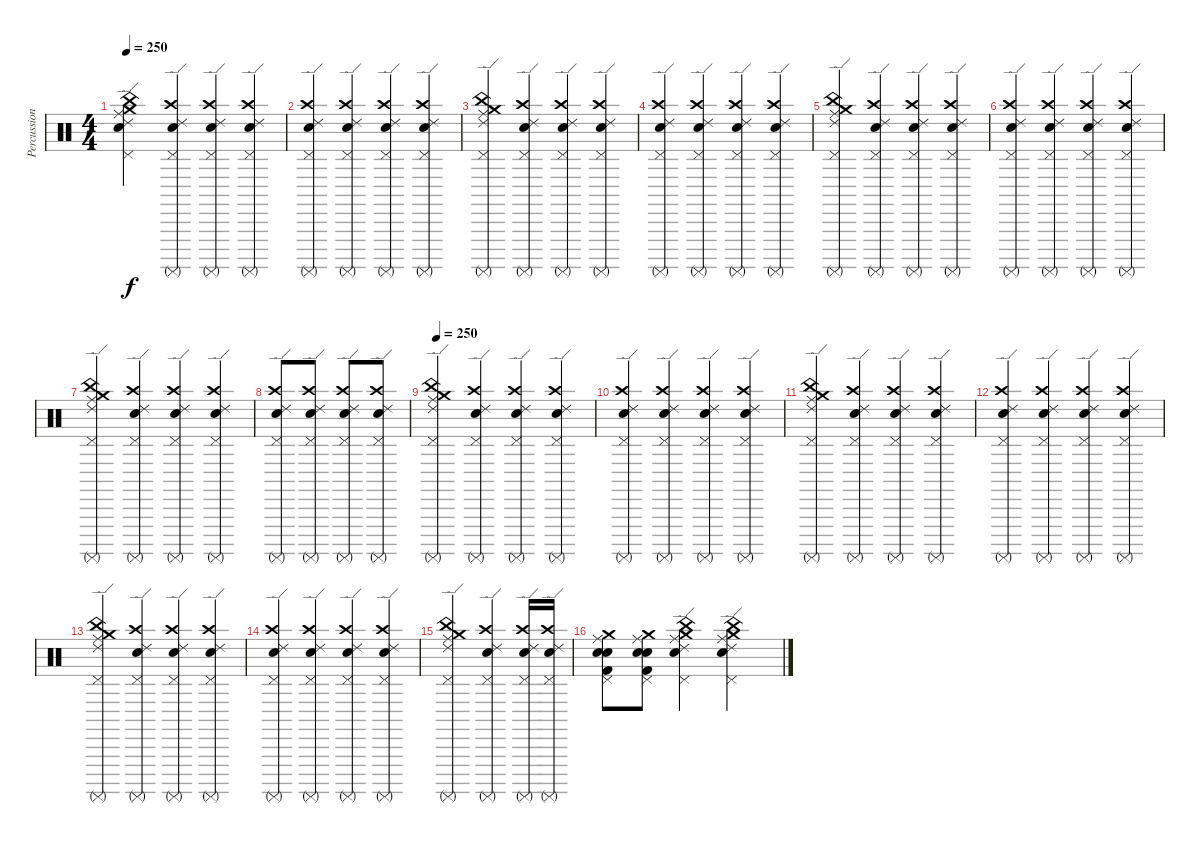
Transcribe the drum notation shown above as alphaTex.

\track ("Percussion" "Percussion") {instrument percussion}
\staff {score}
\articulation defaults
\ts (4 4)
\tempo 250
\clef neutral
\ks c
("Snare (hit) 2" "Ride (middle)" "Crash medium (hit)" "China (hit)" "Pedal Hi-Hat (hit)" "Ride (edge) 2").4{dy f} ("Snare (hit) 2" "Ride (edge) 2" "Crash high (hit)" "Surdo (mute)" "Pedal Hi-Hat (hit)").4 ("Snare (hit) 2" "Ride (edge) 2" "Crash high (hit)" "Surdo (mute)" "Pedal Hi-Hat (hit)").4 ("Snare (hit) 2" "Ride (edge) 2" "Crash high (hit)" "Surdo (mute)" "Pedal Hi-Hat (hit)").4 |
("Snare (hit) 2" "Ride (edge) 2" "Crash high (hit)" "Surdo (mute)" "Pedal Hi-Hat (hit)").4 ("Snare (hit) 2" "Ride (edge) 2" "Crash high (hit)" "Surdo (mute)" "Pedal Hi-Hat (hit)").4 ("Snare (hit) 2" "Ride (edge) 2" "Crash high (hit)" "Surdo (mute)" "Pedal Hi-Hat (hit)").4 ("Snare (hit) 2" "Ride (edge) 2" "Crash high (hit)" "Surdo (mute)" "Pedal Hi-Hat (hit)").4 |
("Ride (middle)" "Crash medium (hit)" "China (hit)" "Surdo (mute)" "Pedal Hi-Hat (hit)" "Ride (edge) 2").4 ("Snare (hit) 2" "Ride (edge) 2" "Crash high (hit)" "Surdo (mute)" "Pedal Hi-Hat (hit)").4 ("Snare (hit) 2" "Ride (edge) 2" "Crash high (hit)" "Surdo (mute)" "Pedal Hi-Hat (hit)").4 ("Snare (hit) 2" "Ride (edge) 2" "Crash high (hit)" "Surdo (mute)" "Pedal Hi-Hat (hit)").4 |
("Snare (hit) 2" "Ride (edge) 2" "Crash high (hit)" "Surdo (mute)" "Pedal Hi-Hat (hit)").4 ("Snare (hit) 2" "Ride (edge) 2" "Crash high (hit)" "Surdo (mute)" "Pedal Hi-Hat (hit)").4 ("Snare (hit) 2" "Ride (edge) 2" "Crash high (hit)" "Surdo (mute)" "Pedal Hi-Hat (hit)").4 ("Snare (hit) 2" "Ride (edge) 2" "Crash high (hit)" "Surdo (mute)" "Pedal Hi-Hat (hit)").4 |
("Ride (middle)" "Crash medium (hit)" "China (hit)" "Surdo (mute)" "Pedal Hi-Hat (hit)" "Ride (edge) 2").4 ("Snare (hit) 2" "Ride (edge) 2" "Crash high (hit)" "Surdo (mute)" "Pedal Hi-Hat (hit)").4 ("Snare (hit) 2" "Ride (edge) 2" "Crash high (hit)" "Surdo (mute)" "Pedal Hi-Hat (hit)").4 ("Snare (hit) 2" "Ride (edge) 2" "Crash high (hit)" "Surdo (mute)" "Pedal Hi-Hat (hit)").4 |
("Snare (hit) 2" "Ride (edge) 2" "Crash high (hit)" "Surdo (mute)" "Pedal Hi-Hat (hit)").4 ("Snare (hit) 2" "Ride (edge) 2" "Crash high (hit)" "Surdo (mute)" "Pedal Hi-Hat (hit)").4 ("Snare (hit) 2" "Ride (edge) 2" "Crash high (hit)" "Surdo (mute)" "Pedal Hi-Hat (hit)").4 ("Snare (hit) 2" "Ride (edge) 2" "Crash high (hit)" "Surdo (mute)" "Pedal Hi-Hat (hit)").4 |
("Ride (middle)" "Crash medium (hit)" "China (hit)" "Surdo (mute)" "Pedal Hi-Hat (hit)" "Ride (edge) 2").4 ("Snare (hit) 2" "Ride (edge) 2" "Crash high (hit)" "Surdo (mute)" "Pedal Hi-Hat (hit)").4 ("Snare (hit) 2" "Ride (edge) 2" "Crash high (hit)" "Surdo (mute)" "Pedal Hi-Hat (hit)").4 ("Snare (hit) 2" "Ride (edge) 2" "Crash high (hit)" "Surdo (mute)" "Pedal Hi-Hat (hit)").4 |
("Snare (hit) 2" "Ride (edge) 2" "Crash high (hit)" "Surdo (mute)" "Pedal Hi-Hat (hit)").8 ("Snare (hit) 2" "Ride (edge) 2" "Crash high (hit)" "Surdo (mute)" "Pedal Hi-Hat (hit)").8 ("Snare (hit) 2" "Ride (edge) 2" "Crash high (hit)" "Surdo (mute)" "Pedal Hi-Hat (hit)").8 ("Snare (hit) 2" "Ride (edge) 2" "Crash high (hit)" "Surdo (mute)" "Pedal Hi-Hat (hit)").8 |
\tempo 250
("Ride (middle)" "Crash medium (hit)" "China (hit)" "Surdo (mute)" "Pedal Hi-Hat (hit)" "Ride (edge) 2").4 ("Snare (hit) 2" "Ride (edge) 2" "Crash high (hit)" "Surdo (mute)" "Pedal Hi-Hat (hit)").4 ("Snare (hit) 2" "Ride (edge) 2" "Crash high (hit)" "Surdo (mute)" "Pedal Hi-Hat (hit)").4 ("Snare (hit) 2" "Ride (edge) 2" "Crash high (hit)" "Surdo (mute)" "Pedal Hi-Hat (hit)").4 |
("Snare (hit) 2" "Ride (edge) 2" "Crash high (hit)" "Surdo (mute)" "Pedal Hi-Hat (hit)").4 ("Snare (hit) 2" "Ride (edge) 2" "Crash high (hit)" "Surdo (mute)" "Pedal Hi-Hat (hit)").4 ("Snare (hit) 2" "Ride (edge) 2" "Crash high (hit)" "Surdo (mute)" "Pedal Hi-Hat (hit)").4 ("Snare (hit) 2" "Ride (edge) 2" "Crash high (hit)" "Surdo (mute)" "Pedal Hi-Hat (hit)").4 |
("Ride (middle)" "Crash medium (hit)" "China (hit)" "Surdo (mute)" "Pedal Hi-Hat (hit)" "Ride (edge) 2").4 ("Snare (hit) 2" "Ride (edge) 2" "Crash high (hit)" "Surdo (mute)" "Pedal Hi-Hat (hit)").4 ("Snare (hit) 2" "Ride (edge) 2" "Crash high (hit)" "Surdo (mute)" "Pedal Hi-Hat (hit)").4 ("Snare (hit) 2" "Ride (edge) 2" "Crash high (hit)" "Surdo (mute)" "Pedal Hi-Hat (hit)").4 |
("Snare (hit) 2" "Ride (edge) 2" "Crash high (hit)" "Surdo (mute)" "Pedal Hi-Hat (hit)").4 ("Snare (hit) 2" "Ride (edge) 2" "Crash high (hit)" "Surdo (mute)" "Pedal Hi-Hat (hit)").4 ("Snare (hit) 2" "Ride (edge) 2" "Crash high (hit)" "Surdo (mute)" "Pedal Hi-Hat (hit)").4 ("Snare (hit) 2" "Ride (edge) 2" "Crash high (hit)" "Surdo (mute)" "Pedal Hi-Hat (hit)").4 |
("Ride (middle)" "Crash medium (hit)" "China (hit)" "Surdo (mute)" "Pedal Hi-Hat (hit)" "Ride (edge) 2").4 ("Snare (hit) 2" "Ride (edge) 2" "Crash high (hit)" "Surdo (mute)" "Pedal Hi-Hat (hit)").4 ("Snare (hit) 2" "Ride (edge) 2" "Crash high (hit)" "Surdo (mute)" "Pedal Hi-Hat (hit)").4 ("Snare (hit) 2" "Ride (edge) 2" "Crash high (hit)" "Surdo (mute)" "Pedal Hi-Hat (hit)").4 |
("Snare (hit) 2" "Ride (edge) 2" "Crash high (hit)" "Surdo (mute)" "Pedal Hi-Hat (hit)").4 ("Snare (hit) 2" "Ride (edge) 2" "Crash high (hit)" "Surdo (mute)" "Pedal Hi-Hat (hit)").4 ("Snare (hit) 2" "Ride (edge) 2" "Crash high (hit)" "Surdo (mute)" "Pedal Hi-Hat (hit)").4 ("Snare (hit) 2" "Ride (edge) 2" "Crash high (hit)" "Surdo (mute)" "Pedal Hi-Hat (hit)").4 |
("Ride (middle)" "Crash medium (hit)" "China (hit)" "Surdo (mute)" "Pedal Hi-Hat (hit)" "Ride (edge) 2").4 ("Snare (hit) 2" "Ride (edge) 2" "Crash high (hit)" "Surdo (mute)" "Pedal Hi-Hat (hit)").4 ("Snare (hit) 2" "Ride (edge) 2" "Crash high (hit)" "Surdo (mute)" "Pedal Hi-Hat (hit)").16 ("Snare (hit) 2" "Ride (edge) 2" "Crash high (hit)" "Surdo (mute)" "Pedal Hi-Hat (hit)").16 |
("Snare (hit) 2" "Kick (hit) 2" "Metronome (bell)" "Ride (middle)" "Pedal Hi-Hat (hit)" "Crash medium (hit)").8 ("Snare (hit) 2" "Kick (hit) 2" "Metronome (bell)" "Ride (middle)" "Pedal Hi-Hat (hit)" "Crash medium (hit)").8 ("China (hit)" "Ride (edge) 2" "Metronome (bell)" "Ride (middle)" "Pedal Hi-Hat (hit)" "Crash medium (hit)").4 ("China (hit)" "Ride (edge) 2" "Metronome (bell)" "Ride (middle)" "Pedal Hi-Hat (hit)" "Crash medium (hit)").4
